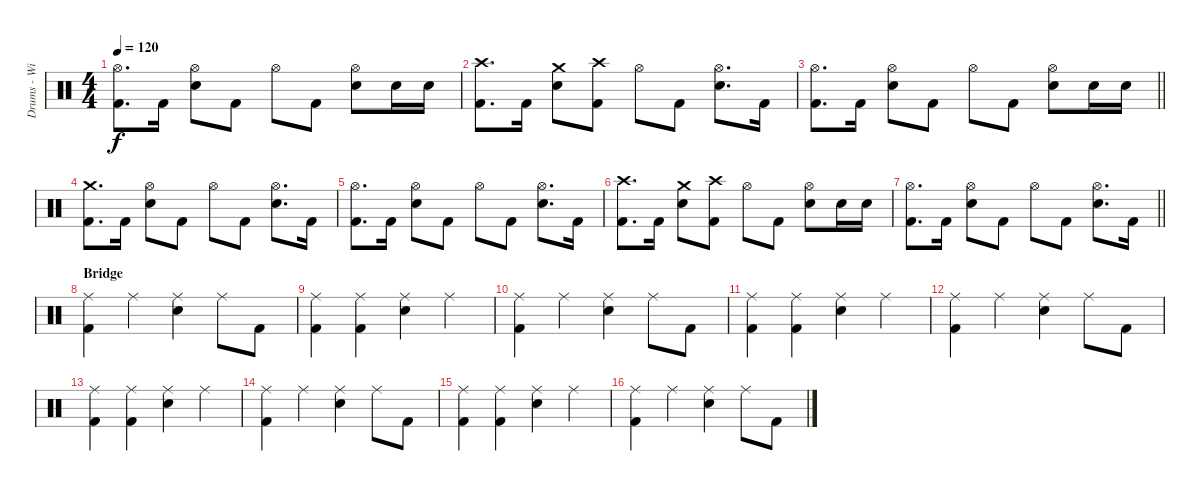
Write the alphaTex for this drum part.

\track ("Drums - Willi Wurm" "Drums - Wi") {instrument percussion}
\staff {score}
\articulation defaults
\ts (4 4)
\tempo 120
\clef neutral
\ks c
("Hi-Hat (open)" "Kick (hit) 2").8{d dy f} "Kick (hit) 2".16 ("Hi-Hat (open)" "Snare (hit) 2").8 "Kick (hit) 2".8 "Hi-Hat (open)".8 "Kick (hit) 2".8 ("Hi-Hat (open)" "Snare (hit) 2").8 "Snare (hit) 2".16 "Snare (hit) 2".16 |
("Crash high (hit)" "Kick (hit) 2").8{d} "Kick (hit) 2".16 ("Crash medium (hit)" "Snare (hit) 2").8 ("Crash high (hit)" "Kick (hit) 2").8 "Hi-Hat (open)".8 "Kick (hit) 2".8 ("Hi-Hat (open)" "Snare (hit) 2").8{d} "Kick (hit) 2".16 |
\barLineRight lightlight
("Hi-Hat (open)" "Kick (hit) 2").8{d} "Kick (hit) 2".16 ("Hi-Hat (open)" "Snare (hit) 2").8 "Kick (hit) 2".8 "Hi-Hat (open)".8 "Kick (hit) 2".8 ("Hi-Hat (open)" "Snare (hit) 2").8 "Snare (hit) 2".16 "Snare (hit) 2".16 |
("Crash medium (hit)" "Kick (hit) 2").8{d} "Kick (hit) 2".16 ("Hi-Hat (open)" "Snare (hit) 2").8 "Kick (hit) 2".8 "Hi-Hat (open)".8 "Kick (hit) 2".8 ("Hi-Hat (open)" "Snare (hit) 2").8{d} "Kick (hit) 2".16 |
("Hi-Hat (open)" "Kick (hit) 2").8{d} "Kick (hit) 2".16 ("Hi-Hat (open)" "Snare (hit) 2").8 "Kick (hit) 2".8 "Hi-Hat (open)".8 "Kick (hit) 2".8 ("Hi-Hat (open)" "Snare (hit) 2").8{d} "Kick (hit) 2".16 |
("Crash high (hit)" "Kick (hit) 2").8{d} "Kick (hit) 2".16 ("Crash medium (hit)" "Snare (hit) 2").8 ("Crash high (hit)" "Kick (hit) 2").8 "Hi-Hat (open)".8 "Kick (hit) 2".8 ("Hi-Hat (open)" "Snare (hit) 2").8 "Snare (hit) 2".16 "Snare (hit) 2".16 |
\barLineRight lightlight
("Hi-Hat (open)" "Kick (hit) 2").8{d} "Kick (hit) 2".16 ("Hi-Hat (open)" "Snare (hit) 2").8 "Kick (hit) 2".8 "Hi-Hat (open)".8 "Kick (hit) 2".8 ("Hi-Hat (open)" "Snare (hit) 2").8{d} "Kick (hit) 2".16 |
\section ("" "Bridge")
("Ride (middle)" "Kick (hit) 2").4 "Ride (middle)".4 ("Ride (middle)" "Snare (hit) 2").4 "Ride (middle)".8 "Kick (hit) 2".8 |
("Ride (middle)" "Kick (hit) 2").4 ("Ride (middle)" "Kick (hit) 2").4 ("Ride (middle)" "Snare (hit) 2").4 "Ride (middle)".4 |
("Ride (middle)" "Kick (hit) 2").4 "Ride (middle)".4 ("Ride (middle)" "Snare (hit) 2").4 "Ride (middle)".8 "Kick (hit) 2".8 |
("Ride (middle)" "Kick (hit) 2").4 ("Ride (middle)" "Kick (hit) 2").4 ("Ride (middle)" "Snare (hit) 2").4 "Ride (middle)".4 |
("Ride (middle)" "Kick (hit) 2").4 "Ride (middle)".4 ("Ride (middle)" "Snare (hit) 2").4 "Ride (middle)".8 "Kick (hit) 2".8 |
("Ride (middle)" "Kick (hit) 2").4 ("Ride (middle)" "Kick (hit) 2").4 ("Ride (middle)" "Snare (hit) 2").4 "Ride (middle)".4 |
("Ride (middle)" "Kick (hit) 2").4 "Ride (middle)".4 ("Ride (middle)" "Snare (hit) 2").4 "Ride (middle)".8 "Kick (hit) 2".8 |
("Ride (middle)" "Kick (hit) 2").4 ("Ride (middle)" "Kick (hit) 2").4 ("Ride (middle)" "Snare (hit) 2").4 "Ride (middle)".4 |
("Ride (middle)" "Kick (hit) 2").4 "Ride (middle)".4 ("Ride (middle)" "Snare (hit) 2").4 "Ride (middle)".8 "Kick (hit) 2".8
